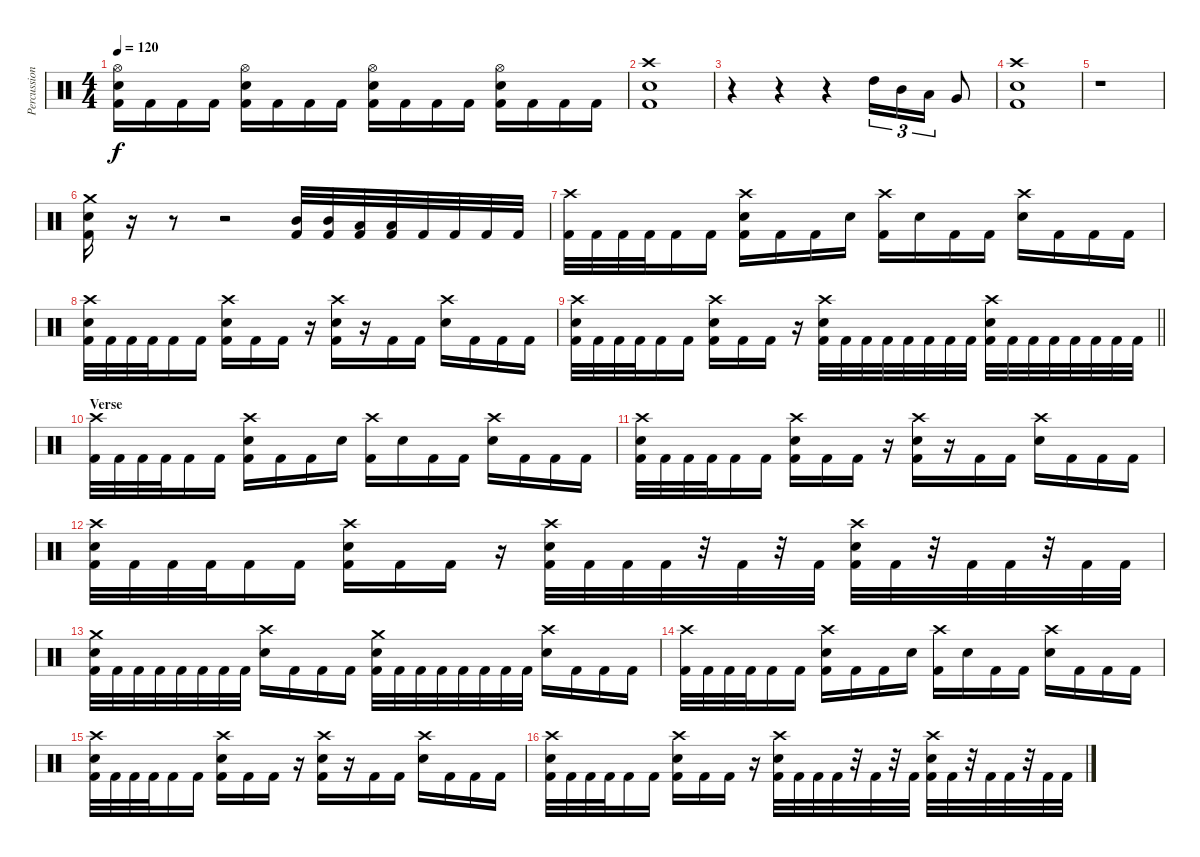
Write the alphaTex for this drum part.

\track ("Percussion" "Percussion") {instrument percussion}
\staff {score}
\articulation defaults
\ts (4 4)
\tempo 120
\clef neutral
\ks c
("Hi-Hat (open)" "Snare (hit) 2" "Kick (hit) 2").16{dy f} "Kick (hit) 2".16 "Kick (hit) 2".16 "Kick (hit) 2".16 ("Hi-Hat (open)" "Snare (hit) 2" "Kick (hit) 2").16 "Kick (hit) 2".16 "Kick (hit) 2".16 "Kick (hit) 2".16 ("Hi-Hat (open)" "Snare (hit) 2" "Kick (hit) 2").16 "Kick (hit) 2".16 "Kick (hit) 2".16 "Kick (hit) 2".16 ("Hi-Hat (open)" "Snare (hit) 2" "Kick (hit) 2").16 "Kick (hit) 2".16 "Kick (hit) 2".16 "Kick (hit) 2".16 |
("Crash high (hit)" "Snare (hit) 2" "Kick (hit) 2").1 |
r.4 r.4 r.4 "High Tom (hit)".16{tu (3 2)} "Mid Tom (hit)".16{tu (3 2)} "Low Tom (hit)".16{tu (3 2)} "Very Low Tom (hit)".8 |
("Crash high (hit)" "Snare (hit) 2" "Kick (hit) 2").1 |
r.1 |
("Crash medium (hit)" "Snare (hit) 2" "Kick (hit) 2").16 r.16 r.8 r.2 ("Mid Tom (hit)" "Kick (hit) 2").32 ("Mid Tom (hit)" "Kick (hit) 2").32 ("Low Tom (hit)" "Kick (hit) 2").32 ("Low Tom (hit)" "Kick (hit) 2").32 "Kick (hit) 2".32 "Kick (hit) 2".32 "Kick (hit) 2".32 "Kick (hit) 2".32 |
("Crash high (hit)" "Kick (hit) 2").32 "Kick (hit) 2".32 "Kick (hit) 2".32 "Kick (hit) 2".32 "Kick (hit) 2".16 "Kick (hit) 2".16 ("Crash high (hit)" "Snare (hit) 2" "Kick (hit) 2").16 "Kick (hit) 2".16 "Kick (hit) 2".16 "Snare (hit) 2".16 ("Crash high (hit)" "Kick (hit) 2").16 "Snare (hit) 2".16 "Kick (hit) 2".16 "Kick (hit) 2".16 ("Crash high (hit)" "Snare (hit) 2").16 "Kick (hit) 2".16 "Kick (hit) 2".16 "Kick (hit) 2".16 |
("Crash high (hit)" "Snare (hit) 2" "Kick (hit) 2").32 "Kick (hit) 2".32 "Kick (hit) 2".32 "Kick (hit) 2".32 "Kick (hit) 2".16 "Kick (hit) 2".16 ("Crash high (hit)" "Snare (hit) 2" "Kick (hit) 2").16 "Kick (hit) 2".16 "Kick (hit) 2".16 r.16 ("Crash high (hit)" "Snare (hit) 2" "Kick (hit) 2").16 r.16 "Kick (hit) 2".16 "Kick (hit) 2".16 ("Crash high (hit)" "Snare (hit) 2").16 "Kick (hit) 2".16 "Kick (hit) 2".16 "Kick (hit) 2".16 |
\barLineRight lightlight
("Crash high (hit)" "Snare (hit) 2" "Kick (hit) 2").32 "Kick (hit) 2".32 "Kick (hit) 2".32 "Kick (hit) 2".32 "Kick (hit) 2".16 "Kick (hit) 2".16 ("Crash high (hit)" "Snare (hit) 2" "Kick (hit) 2").16 "Kick (hit) 2".16 "Kick (hit) 2".16 r.16 ("Crash high (hit)" "Snare (hit) 2" "Kick (hit) 2").32 "Kick (hit) 2".32 "Kick (hit) 2".32 "Kick (hit) 2".32 "Kick (hit) 2".32 "Kick (hit) 2".32 "Kick (hit) 2".32 "Kick (hit) 2".32 ("Crash high (hit)" "Snare (hit) 2" "Kick (hit) 2").32 "Kick (hit) 2".32 "Kick (hit) 2".32 "Kick (hit) 2".32 "Kick (hit) 2".32 "Kick (hit) 2".32 "Kick (hit) 2".32 "Kick (hit) 2".32 |
\section ("" "Verse")
("Crash high (hit)" "Kick (hit) 2").32 "Kick (hit) 2".32 "Kick (hit) 2".32 "Kick (hit) 2".32 "Kick (hit) 2".16 "Kick (hit) 2".16 ("Crash high (hit)" "Snare (hit) 2" "Kick (hit) 2").16 "Kick (hit) 2".16 "Kick (hit) 2".16 "Snare (hit) 2".16 ("Crash high (hit)" "Kick (hit) 2").16 "Snare (hit) 2".16 "Kick (hit) 2".16 "Kick (hit) 2".16 ("Crash high (hit)" "Snare (hit) 2").16 "Kick (hit) 2".16 "Kick (hit) 2".16 "Kick (hit) 2".16 |
("Crash high (hit)" "Snare (hit) 2" "Kick (hit) 2").32 "Kick (hit) 2".32 "Kick (hit) 2".32 "Kick (hit) 2".32 "Kick (hit) 2".16 "Kick (hit) 2".16 ("Crash high (hit)" "Snare (hit) 2" "Kick (hit) 2").16 "Kick (hit) 2".16 "Kick (hit) 2".16 r.16 ("Crash high (hit)" "Snare (hit) 2" "Kick (hit) 2").16 r.16 "Kick (hit) 2".16 "Kick (hit) 2".16 ("Crash high (hit)" "Snare (hit) 2").16 "Kick (hit) 2".16 "Kick (hit) 2".16 "Kick (hit) 2".16 |
("Crash high (hit)" "Snare (hit) 2" "Kick (hit) 2").32 "Kick (hit) 2".32 "Kick (hit) 2".32 "Kick (hit) 2".32 "Kick (hit) 2".16 "Kick (hit) 2".16 ("Crash high (hit)" "Snare (hit) 2" "Kick (hit) 2").16 "Kick (hit) 2".16 "Kick (hit) 2".16 r.16 ("Crash high (hit)" "Snare (hit) 2" "Kick (hit) 2").32 "Kick (hit) 2".32 "Kick (hit) 2".32 "Kick (hit) 2".32 r.32 "Kick (hit) 2".32 r.32 "Kick (hit) 2".32 ("Crash high (hit)" "Snare (hit) 2" "Kick (hit) 2").32 "Kick (hit) 2".32 r.32 "Kick (hit) 2".32 "Kick (hit) 2".32 r.32 "Kick (hit) 2".32 "Kick (hit) 2".32 |
("Crash medium (hit)" "Snare (hit) 2" "Kick (hit) 2").32 "Kick (hit) 2".32 "Kick (hit) 2".32 "Kick (hit) 2".32 "Kick (hit) 2".32 "Kick (hit) 2".32 "Kick (hit) 2".32 "Kick (hit) 2".32 ("Crash high (hit)" "Snare (hit) 2").16 "Kick (hit) 2".16 "Kick (hit) 2".16 "Kick (hit) 2".16 ("Crash medium (hit)" "Snare (hit) 2" "Kick (hit) 2").32 "Kick (hit) 2".32 "Kick (hit) 2".32 "Kick (hit) 2".32 "Kick (hit) 2".32 "Kick (hit) 2".32 "Kick (hit) 2".32 "Kick (hit) 2".32 ("Crash high (hit)" "Snare (hit) 2").16 "Kick (hit) 2".16 "Kick (hit) 2".16 "Kick (hit) 2".16 |
("Crash high (hit)" "Kick (hit) 2").32 "Kick (hit) 2".32 "Kick (hit) 2".32 "Kick (hit) 2".32 "Kick (hit) 2".16 "Kick (hit) 2".16 ("Crash high (hit)" "Snare (hit) 2" "Kick (hit) 2").16 "Kick (hit) 2".16 "Kick (hit) 2".16 "Snare (hit) 2".16 ("Crash high (hit)" "Kick (hit) 2").16 "Snare (hit) 2".16 "Kick (hit) 2".16 "Kick (hit) 2".16 ("Crash high (hit)" "Snare (hit) 2").16 "Kick (hit) 2".16 "Kick (hit) 2".16 "Kick (hit) 2".16 |
("Crash high (hit)" "Snare (hit) 2" "Kick (hit) 2").32 "Kick (hit) 2".32 "Kick (hit) 2".32 "Kick (hit) 2".32 "Kick (hit) 2".16 "Kick (hit) 2".16 ("Crash high (hit)" "Snare (hit) 2" "Kick (hit) 2").16 "Kick (hit) 2".16 "Kick (hit) 2".16 r.16 ("Crash high (hit)" "Snare (hit) 2" "Kick (hit) 2").16 r.16 "Kick (hit) 2".16 "Kick (hit) 2".16 ("Crash high (hit)" "Snare (hit) 2").16 "Kick (hit) 2".16 "Kick (hit) 2".16 "Kick (hit) 2".16 |
("Crash high (hit)" "Snare (hit) 2" "Kick (hit) 2").32 "Kick (hit) 2".32 "Kick (hit) 2".32 "Kick (hit) 2".32 "Kick (hit) 2".16 "Kick (hit) 2".16 ("Crash high (hit)" "Snare (hit) 2" "Kick (hit) 2").16 "Kick (hit) 2".16 "Kick (hit) 2".16 r.16 ("Crash high (hit)" "Snare (hit) 2" "Kick (hit) 2").32 "Kick (hit) 2".32 "Kick (hit) 2".32 "Kick (hit) 2".32 r.32 "Kick (hit) 2".32 r.32 "Kick (hit) 2".32 ("Crash high (hit)" "Snare (hit) 2" "Kick (hit) 2").32 "Kick (hit) 2".32 r.32 "Kick (hit) 2".32 "Kick (hit) 2".32 r.32 "Kick (hit) 2".32 "Kick (hit) 2".32
